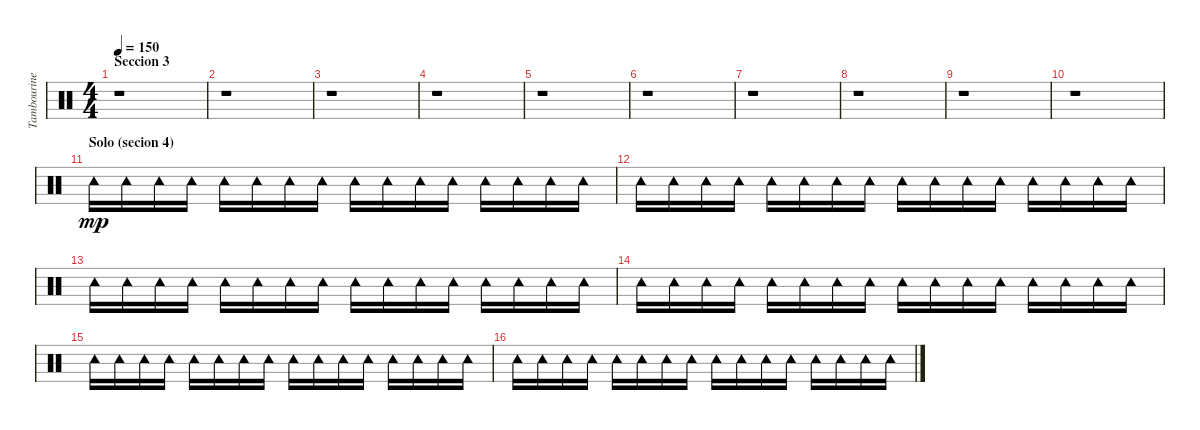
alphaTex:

\track ("Tambourine" "Tambourine") {instrument percussion}
\staff {score}
\articulation defaults
\ts (4 4)
\section ("" "Seccion 3")
\tempo 150
\clef neutral
\ks c
r.1{dy mp} |
r.1 |
r.1 |
r.1 |
r.1 |
r.1 |
r.1 |
r.1 |
r.1 |
r.1 |
\section ("" "Solo (secion 4)")
"Tambourine (hit)".16 "Tambourine (hit)".16 "Tambourine (hit)".16 "Tambourine (hit)".16 "Tambourine (hit)".16 "Tambourine (hit)".16 "Tambourine (hit)".16 "Tambourine (hit)".16 "Tambourine (hit)".16 "Tambourine (hit)".16 "Tambourine (hit)".16 "Tambourine (hit)".16 "Tambourine (hit)".16 "Tambourine (hit)".16 "Tambourine (hit)".16 "Tambourine (hit)".16 |
"Tambourine (hit)".16 "Tambourine (hit)".16 "Tambourine (hit)".16 "Tambourine (hit)".16 "Tambourine (hit)".16 "Tambourine (hit)".16 "Tambourine (hit)".16 "Tambourine (hit)".16 "Tambourine (hit)".16 "Tambourine (hit)".16 "Tambourine (hit)".16 "Tambourine (hit)".16 "Tambourine (hit)".16 "Tambourine (hit)".16 "Tambourine (hit)".16 "Tambourine (hit)".16 |
"Tambourine (hit)".16 "Tambourine (hit)".16 "Tambourine (hit)".16 "Tambourine (hit)".16 "Tambourine (hit)".16 "Tambourine (hit)".16 "Tambourine (hit)".16 "Tambourine (hit)".16 "Tambourine (hit)".16 "Tambourine (hit)".16 "Tambourine (hit)".16 "Tambourine (hit)".16 "Tambourine (hit)".16 "Tambourine (hit)".16 "Tambourine (hit)".16 "Tambourine (hit)".16 |
"Tambourine (hit)".16 "Tambourine (hit)".16 "Tambourine (hit)".16 "Tambourine (hit)".16 "Tambourine (hit)".16 "Tambourine (hit)".16 "Tambourine (hit)".16 "Tambourine (hit)".16 "Tambourine (hit)".16 "Tambourine (hit)".16 "Tambourine (hit)".16 "Tambourine (hit)".16 "Tambourine (hit)".16 "Tambourine (hit)".16 "Tambourine (hit)".16 "Tambourine (hit)".16 |
"Tambourine (hit)".16 "Tambourine (hit)".16 "Tambourine (hit)".16 "Tambourine (hit)".16 "Tambourine (hit)".16 "Tambourine (hit)".16 "Tambourine (hit)".16 "Tambourine (hit)".16 "Tambourine (hit)".16 "Tambourine (hit)".16 "Tambourine (hit)".16 "Tambourine (hit)".16 "Tambourine (hit)".16 "Tambourine (hit)".16 "Tambourine (hit)".16 "Tambourine (hit)".16 |
"Tambourine (hit)".16 "Tambourine (hit)".16 "Tambourine (hit)".16 "Tambourine (hit)".16 "Tambourine (hit)".16 "Tambourine (hit)".16 "Tambourine (hit)".16 "Tambourine (hit)".16 "Tambourine (hit)".16 "Tambourine (hit)".16 "Tambourine (hit)".16 "Tambourine (hit)".16 "Tambourine (hit)".16 "Tambourine (hit)".16 "Tambourine (hit)".16 "Tambourine (hit)".16
